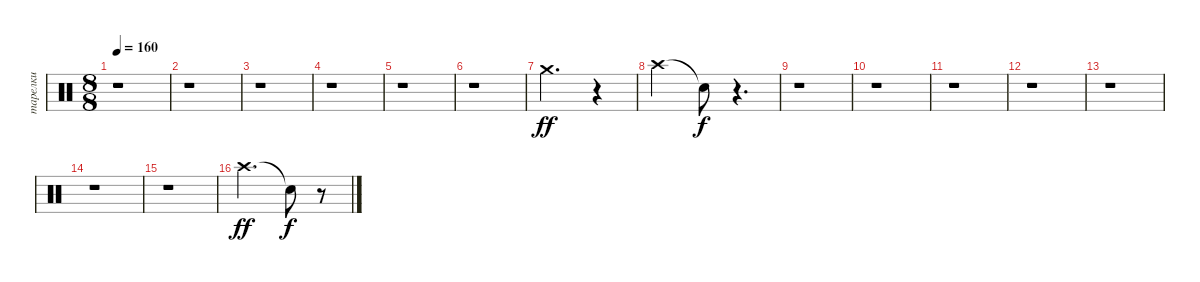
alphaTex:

\track ("тарелки" "тарелки") {instrument percussion}
\staff {score}
\articulation defaults
\ts (8 8)
\tempo 160
\clef neutral
\ks c
r.1{dy f} |
r.1 |
r.1 |
r.1 |
r.1 |
r.1 |
"Crash medium (hit)".2{d dy ff} r.4 |
"Crash high (hit)".2 "Snare (hit)"{t}.8{dy f} r.4{d} |
r.1 |
r.1 |
r.1 |
r.1 |
r.1 |
r.1 |
r.1 |
"Crash high (hit)".2{d dy ff} "Snare (hit)"{t}.8{dy f} r.8
